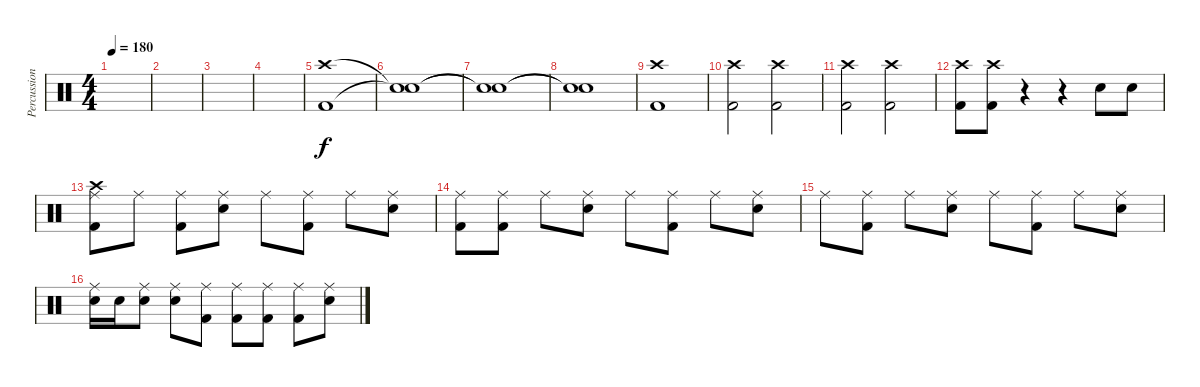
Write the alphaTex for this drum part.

\track ("Percussion" "Percussion") {instrument percussion}
\staff {score}
\articulation defaults
\ts (4 4)
\tempo 180
\clef neutral
\ks c
|
|
|
|
("Crash high (hit)" "Kick (hit) 2").1 |
("Snare (hit)"{t} "Snare (hit)"{t}).1 |
("Snare (hit)"{t} "Snare (hit)"{t}).1 |
("Snare (hit)"{t} "Snare (hit)"{t}).1 |
("Crash high (hit)" "Kick (hit) 2").1 |
("Crash high (hit)" "Kick (hit) 2").2 ("Crash high (hit)" "Kick (hit) 2").2 |
("Crash high (hit)" "Kick (hit) 2").2 ("Crash high (hit)" "Kick (hit) 2").2 |
("Crash high (hit)" "Kick (hit) 2").8 ("Crash high (hit)" "Kick (hit) 2").8 r.4 r.4 "Electric Snare (hit)".8 "Electric Snare (hit)".8 |
("Ride (middle)" "Crash high (hit)" "Kick (hit) 2").8 "Ride (middle)".8 ("Ride (middle)" "Kick (hit) 2").8 ("Ride (middle)" "Electric Snare (hit)").8 "Ride (middle)".8 ("Ride (middle)" "Kick (hit) 2").8 "Ride (middle)".8 ("Ride (middle)" "Electric Snare (hit)").8 |
("Ride (middle)" "Kick (hit) 2").8 ("Ride (middle)" "Kick (hit) 2").8 "Ride (middle)".8 ("Ride (middle)" "Electric Snare (hit)").8 "Ride (middle)".8 ("Ride (middle)" "Kick (hit) 2").8 "Ride (middle)".8 ("Ride (middle)" "Electric Snare (hit)").8 |
"Ride (middle)".8 ("Ride (middle)" "Kick (hit) 2").8 "Ride (middle)".8 ("Ride (middle)" "Electric Snare (hit)").8 "Ride (middle)".8 ("Ride (middle)" "Kick (hit) 2").8 "Ride (middle)".8 ("Ride (middle)" "Electric Snare (hit)").8 |
("Ride (middle)" "Electric Snare (hit)").16 "Electric Snare (hit)".16 ("Ride (middle)" "Electric Snare (hit)").8 ("Ride (middle)" "Electric Snare (hit)").8 ("Ride (middle)" "Kick (hit) 2").8 ("Ride (middle)" "Kick (hit) 2").8 ("Ride (middle)" "Kick (hit) 2").8 ("Ride (middle)" "Kick (hit) 2").8 ("Ride (middle)" "Electric Snare (hit)").8
